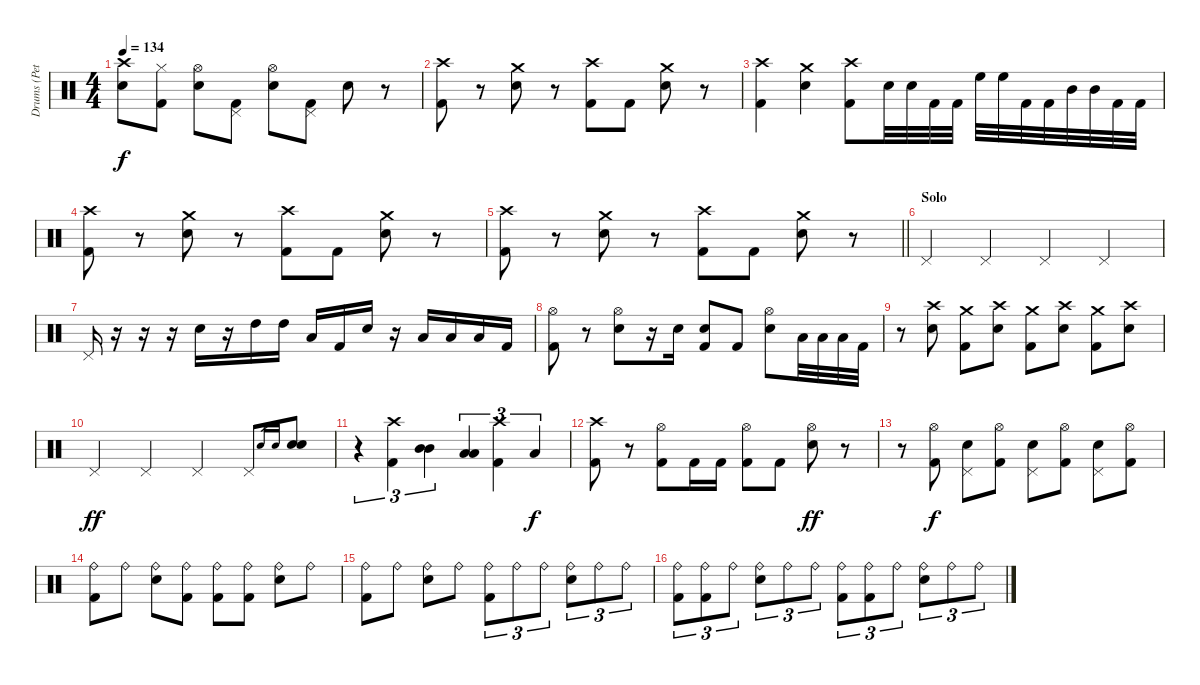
\track ("Drums (Peter)" "Drums (Pet") {instrument percussion}
\staff {score}
\articulation defaults
\ts (4 4)
\tempo 134
\clef neutral
\ks c
("Crash high (hit)" "Electric Snare (hit)").8{dy f} ("Hi-Hat (closed)" "Kick (hit) 2").8 ("Hi-Hat (open)" "Electric Snare (hit)").8 ("Pedal Hi-Hat (hit)" "Kick (hit) 2").8 ("Hi-Hat (open)" "Electric Snare (hit)").8 ("Pedal Hi-Hat (hit)" "Kick (hit) 2").8 "Electric Snare (hit)".8 r.8 |
("Crash high (hit)" "Kick (hit) 2").8 r.8 ("Crash medium (hit)" "Electric Snare (hit)").8 r.8 ("Crash high (hit)" "Kick (hit) 2").8 "Kick (hit) 2".8 ("Crash medium (hit)" "Electric Snare (hit)").8 r.8 |
("Crash high (hit)" "Kick (hit) 2").4 ("Crash medium (hit)" "Electric Snare (hit)").4 ("Crash high (hit)" "Kick (hit) 2").8{volume 16} "Electric Snare (hit)".32 "Electric Snare (hit)".32 "Kick (hit) 2".32 "Kick (hit) 2".32 "High Floor Tom (hit)".32 "High Floor Tom (hit)".32 "Kick (hit) 2".32 "Kick (hit) 2".32 "Mid Tom (hit)".32 "Mid Tom (hit)".32 "Kick (hit) 2".32 "Kick (hit) 2".32 |
("Crash high (hit)" "Kick (hit) 2").8{volume 14} r.8 ("Crash medium (hit)" "Electric Snare (hit)").8 r.8 ("Crash high (hit)" "Kick (hit) 2").8 "Kick (hit) 2".8 ("Crash medium (hit)" "Electric Snare (hit)").8 r.8 |
\barLineRight lightlight
("Crash high (hit)" "Kick (hit) 2").8 r.8 ("Crash medium (hit)" "Electric Snare (hit)").8 r.8 ("Crash high (hit)" "Kick (hit) 2").8 "Kick (hit) 2".8 ("Crash medium (hit)" "Electric Snare (hit)").8 r.8 |
\section ("" "Solo")
"Pedal Hi-Hat (hit)".4 "Pedal Hi-Hat (hit)".4 "Pedal Hi-Hat (hit)".4 "Pedal Hi-Hat (hit)".4 |
"Pedal Hi-Hat (hit)".16 r.16 r.16 r.16 "Electric Snare (hit)".16 r.16 "High Tom (hit)".16 "High Tom (hit)".16 "Low Floor Tom (hit)".16 "Kick (hit) 2".16 "Electric Snare (hit)".16 r.16 "Low Tom (hit)".16 "Low Tom (hit)".16 "Low Floor Tom (hit)".16 "Kick (hit) 2".16 |
("Hi-Hat (open)" "Kick (hit) 2").8 r.8 ("Hi-Hat (open)" "Electric Snare (hit)").8 r.16 "Snare (hit) 2".16 ("Snare (hit) 2" "Kick (hit) 2").8 "Kick (hit) 2".8 ("Hi-Hat (open)" "Electric Snare (hit)").8 "Low Tom (hit)".32 "Low Tom (hit)".32 "Low Floor Tom (hit)".32 "Kick (hit) 2".32 |
r.8 ("Crash high (hit)" "Electric Snare (hit)").8 ("Crash medium (hit)" "Kick (hit) 2").8 ("Crash high (hit)" "Electric Snare (hit)").8 ("Crash medium (hit)" "Kick (hit) 2").8 ("Crash high (hit)" "Electric Snare (hit)").8 ("Crash medium (hit)" "Kick (hit) 2").8 ("Crash high (hit)" "Electric Snare (hit)").8 |
"Pedal Hi-Hat (hit)".4{dy ff} "Pedal Hi-Hat (hit)".4 "Pedal Hi-Hat (hit)".4 "Pedal Hi-Hat (hit)".8 "Electric Snare (hit)".16{gr} "Electric Snare (hit)".16{gr} ("Electric Snare (hit)" "Electric Snare (hit)").8 |
r.4{tu (3 2)} ("Crash high (hit)" "Kick (hit) 2").4{tu (3 2)} ("Mid Tom (hit)" "Mid Tom (hit)").4{tu (3 2)} ("Low Tom (hit)" "Low Tom (hit)").4{tu (3 2)} ("Crash high (hit)" "Kick (hit) 2").4{tu (3 2)} "Low Floor Tom (hit)".4{tu (3 2) dy f} |
("Crash high (hit)" "Kick (hit) 2").8 r.8 ("Hi-Hat (open)" "Kick (hit) 2").8 "Kick (hit) 2".16 "Kick (hit) 2".16 ("Hi-Hat (open)" "Kick (hit) 2").8 "Kick (hit) 2".8 ("Hi-Hat (open)" "Electric Snare (hit)").8{dy ff} r.8 |
r.8 ("Hi-Hat (open)" "Kick (hit) 2").8{dy f} ("Pedal Hi-Hat (hit)" "Electric Snare (hit)").8 ("Hi-Hat (open)" "Kick (hit) 2").8 ("Pedal Hi-Hat (hit)" "Electric Snare (hit)").8 ("Hi-Hat (open)" "Kick (hit) 2").8 ("Pedal Hi-Hat (hit)" "Electric Snare (hit)").8 ("Hi-Hat (open)" "Kick (hit) 2").8 |
("Ride (bell)" "Kick (hit) 2").8 "Ride (bell)".8 ("Ride (bell)" "Electric Snare (hit)").8 ("Ride (bell)" "Kick (hit) 2").8 ("Ride (bell)" "Kick (hit) 2").8 ("Ride (bell)" "Kick (hit) 2").8 ("Ride (bell)" "Electric Snare (hit)").8 "Ride (bell)".8 |
("Ride (bell)" "Kick (hit) 2").8 "Ride (bell)".8 ("Ride (bell)" "Electric Snare (hit)").8 "Ride (bell)".8 ("Ride (bell)" "Kick (hit) 2").8{tu (3 2)} "Ride (bell)".8{tu (3 2)} "Ride (bell)".8{tu (3 2)} ("Ride (bell)" "Electric Snare (hit)").8{tu (3 2)} "Ride (bell)".8{tu (3 2)} "Ride (bell)".8{tu (3 2)} |
("Ride (bell)" "Kick (hit) 2").8{tu (3 2)} ("Ride (bell)" "Kick (hit) 2").8{tu (3 2)} "Ride (bell)".8{tu (3 2)} ("Ride (bell)" "Electric Snare (hit)").8{tu (3 2)} "Ride (bell)".8{tu (3 2)} "Ride (bell)".8{tu (3 2)} ("Ride (bell)" "Kick (hit) 2").8{tu (3 2)} ("Ride (bell)" "Kick (hit) 2").8{tu (3 2)} "Ride (bell)".8{tu (3 2)} ("Ride (bell)" "Electric Snare (hit)").8{tu (3 2)} "Ride (bell)".8{tu (3 2)} "Ride (bell)".8{tu (3 2)}
